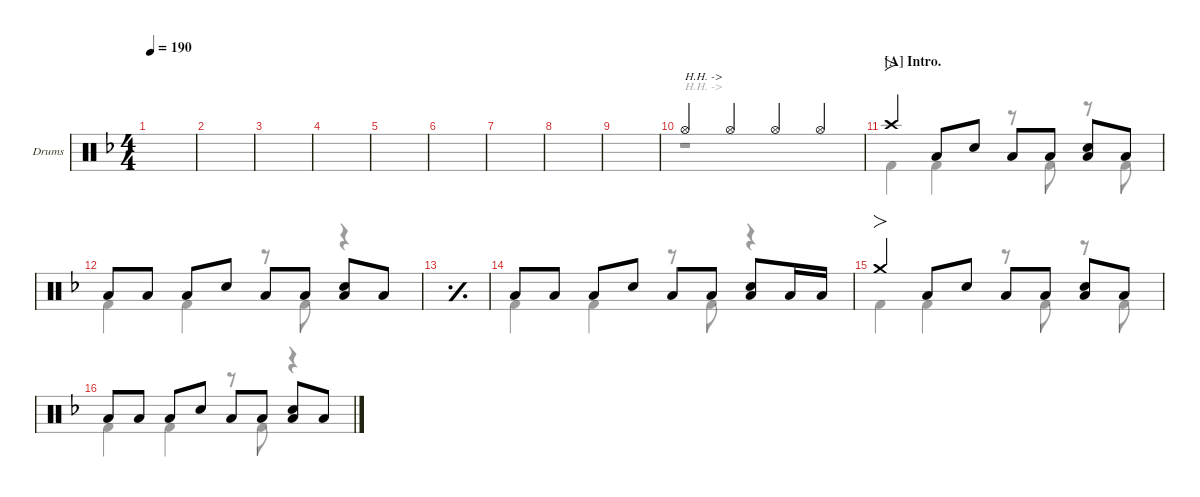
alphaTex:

\defaultSystemsLayout 4
\hideDynamics
\bracketExtendMode nobrackets
\firstSystemTrackNameOrientation horizontal
\track ("Drums" "Drums") {defaultSystemsLayout 4 instrument percussion}
\staff {score}
\articulation defaults
\voice
\ts (4 4)
\tempo 190
\clef neutral
\ks dminor
|
|
|
|
|
|
|
|
|
\scale
0.488921 "Hi-Hat (open)"{acc forcenatural}.4{txt "H.H. ->"} "Hi-Hat (open)"{acc forcenatural}.4 "Hi-Hat (open)"{acc forcenatural}.4 "Hi-Hat (open)"{acc forcenatural}.4 |
\section ("A" "Intro.")
\scale
0.266618 "Crash high (hit)"{acc forcenatural}.4{fo} "Low Tom (hit)"{acc forcenatural}.8 "Snare (hit) 2"{acc forcenatural}.8 "Low Tom (hit)"{acc forcenatural}.8 "Low Tom (hit)"{acc forcenatural}.8 ("Low Tom (hit)"{acc forcenatural} "Snare (hit) 2"{acc forcenatural}).8 "Low Tom (hit)"{acc forcenatural}.8 |
\scale
0.244461 "Low Tom (hit)"{acc forcenatural}.8 "Low Tom (hit)"{acc forcenatural}.8 "Low Tom (hit)"{acc forcenatural}.8 "Snare (hit) 2"{acc forcenatural}.8 "Low Tom (hit)"{acc forcenatural}.8 "Low Tom (hit)"{acc forcenatural}.8 ("Low Tom (hit)"{acc forcenatural} "Snare (hit) 2"{acc forcenatural}).8 "Low Tom (hit)"{acc forcenatural}.8 |
\simile simple
\scale
0.24446 |
\simile none
\scale
0.244461 "Low Tom (hit)"{acc forcenatural}.8 "Low Tom (hit)"{acc forcenatural}.8 "Low Tom (hit)"{acc forcenatural}.8 "Snare (hit) 2"{acc forcenatural}.8 "Low Tom (hit)"{acc forcenatural}.8 "Low Tom (hit)"{acc forcenatural}.8{beam split} ("Low Tom (hit)"{acc forcenatural} "Snare (hit) 2"{acc forcenatural}).8 "Low Tom (hit)"{acc forcenatural}.16 "Low Tom (hit)"{acc forcenatural}.16 |
\scale
0.266618 "Crash medium (hit)"{acc forcenatural}.4{fo} "Low Tom (hit)"{acc forcenatural}.8 "Snare (hit) 2"{acc forcenatural}.8 "Low Tom (hit)"{acc forcenatural}.8 "Low Tom (hit)"{acc forcenatural}.8 ("Low Tom (hit)"{acc forcenatural} "Snare (hit) 2"{acc forcenatural}).8 "Low Tom (hit)"{acc forcenatural}.8 |
\scale
0.244461 "Low Tom (hit)"{acc forcenatural}.8 "Low Tom (hit)"{acc forcenatural}.8 "Low Tom (hit)"{acc forcenatural}.8 "Snare (hit) 2"{acc forcenatural}.8 "Low Tom (hit)"{acc forcenatural}.8 "Low Tom (hit)"{acc forcenatural}.8 ("Low Tom (hit)"{acc forcenatural} "Snare (hit) 2"{acc forcenatural}).8 "Low Tom (hit)"{acc forcenatural}.8
\voice
\clef neutral
\ottava regular
\simile none
\ks dminor
|
|
|
|
|
|
|
|
|
\scale
0.488921 r.1{txt "H.H. ->"} |
\scale
0.266618 "Kick (hit) 2"{acc forcenatural}.4 "Kick (hit) 2"{acc forcenatural}.4 r.8 "Kick (hit) 2"{acc forcenatural}.8 r.8 "Kick (hit) 2"{acc forcenatural}.8 |
\scale
0.244461 "Kick (hit) 2"{acc forcenatural}.4 "Kick (hit) 2"{acc forcenatural}.4 r.8 "Kick (hit) 2"{acc forcenatural}.8 r.4 |
\simile simple
\scale
0.24446 |
\simile none
\scale
0.244461 "Kick (hit) 2"{acc forcenatural}.4 "Kick (hit) 2"{acc forcenatural}.4 r.8 "Kick (hit) 2"{acc forcenatural}.8 r.4 |
\scale
0.266618 "Kick (hit) 2"{acc forcenatural}.4 "Kick (hit) 2"{acc forcenatural}.4 r.8 "Kick (hit) 2"{acc forcenatural}.8 r.8 "Kick (hit) 2"{acc forcenatural}.8 |
\scale
0.244461 "Kick (hit) 2"{acc forcenatural}.4 "Kick (hit) 2"{acc forcenatural}.4 r.8 "Kick (hit) 2"{acc forcenatural}.8 r.4
